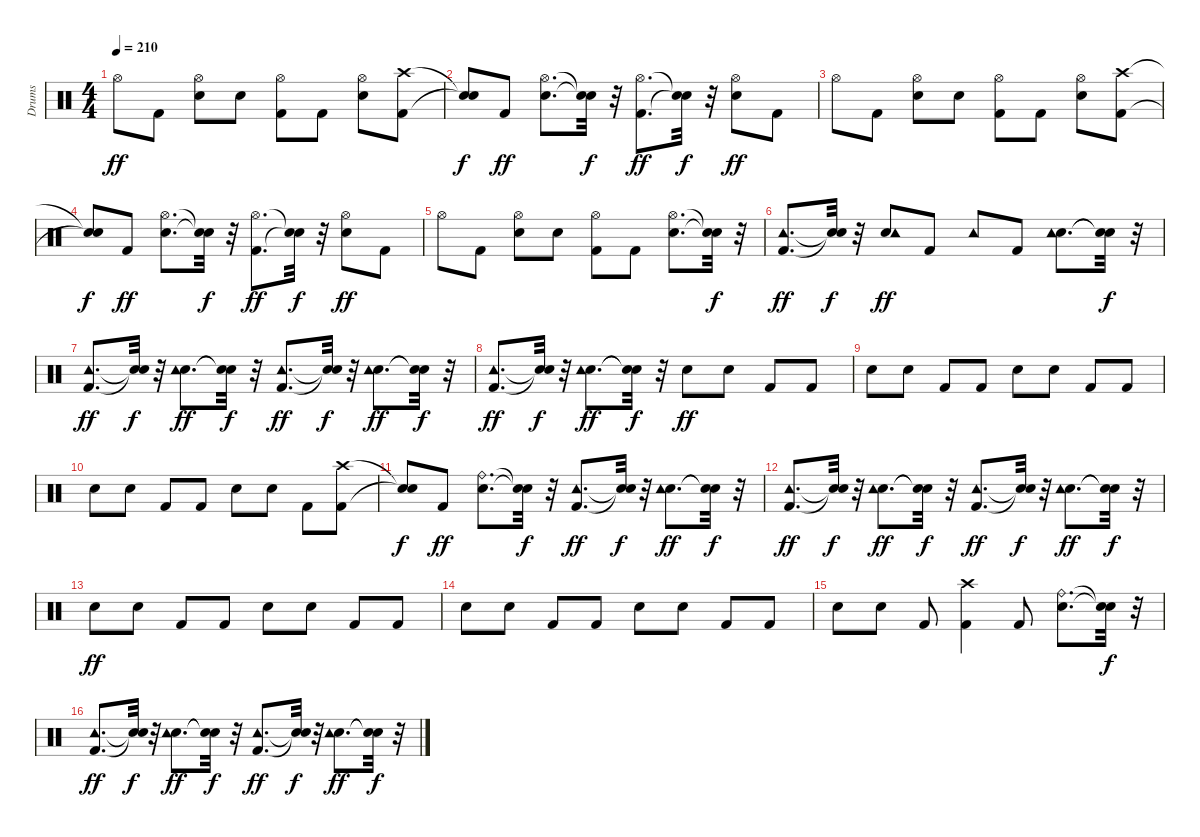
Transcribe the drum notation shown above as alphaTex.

\track ("Drums" "Drums") {instrument percussion}
\staff {score}
\articulation defaults
\ts (4 4)
\tempo 210
\clef neutral
\ks c "Hi-Hat (open)".8{dy ff} "Kick (hit) 2".8
("Snare (hit) 2" "Hi-Hat (open)").8 "Snare (hit) 2".8 ("Kick (hit) 2" "Hi-Hat (open)").8 "Kick (hit) 2".8 ("Snare (hit) 2" "Hi-Hat (open)").8 ("Kick (hit) 2" "Crash high (hit)").8 |
("Snare (hit)"{t} "Snare (hit)"{t}).8{dy f} "Kick (hit) 2".8{dy ff} ("Snare (hit) 2" "Hi-Hat (open)").8{d} ("Snare (hit)"{t} "Snare (hit)"{t}).32{dy f} r.32 ("Kick (hit) 2" "Hi-Hat (open)").8{d dy ff} ("Snare (hit)"{t} "Snare (hit)"{t}).32{dy f} r.32 ("Snare (hit) 2" "Hi-Hat (open)").8{dy ff} "Kick (hit) 2".8 |
"Hi-Hat (open)".8 "Kick (hit) 2".8 ("Snare (hit) 2" "Hi-Hat (open)").8 "Snare (hit) 2".8 ("Kick (hit) 2" "Hi-Hat (open)").8 "Kick (hit) 2".8 ("Snare (hit) 2" "Hi-Hat (open)").8 ("Kick (hit) 2" "Crash high (hit)").8 |
("Snare (hit)"{t} "Snare (hit)"{t}).8{dy f} "Kick (hit) 2".8{dy ff} ("Snare (hit) 2" "Hi-Hat (open)").8{d} ("Snare (hit)"{t} "Snare (hit)"{t}).32{dy f} r.32 ("Kick (hit) 2" "Hi-Hat (open)").8{d dy ff} ("Snare (hit)"{t} "Snare (hit)"{t}).32{dy f} r.32 ("Snare (hit) 2" "Hi-Hat (open)").8{dy ff} "Kick (hit) 2".8 |
"Hi-Hat (open)".8 "Kick (hit) 2".8 ("Snare (hit) 2" "Hi-Hat (open)").8 "Snare (hit) 2".8 ("Kick (hit) 2" "Hi-Hat (open)").8 "Kick (hit) 2".8 ("Snare (hit) 2" "Hi-Hat (open)").8{d} ("Snare (hit)"{t} "Snare (hit)"{t}).32{dy f} r.32 |
("Kick (hit) 2" "Tambourine (hit)").8{d dy ff} ("Snare (hit)"{t} "Snare (hit)"{t}).32{dy f} r.32 ("Snare (hit) 2" "Tambourine (hit)").8{dy ff} "Kick (hit) 2".8 "Tambourine (hit)".8 "Kick (hit) 2".8 ("Snare (hit) 2" "Tambourine (hit)").8{d} ("Snare (hit)"{t} "Snare (hit)"{t}).32{dy f} r.32 |
("Kick (hit) 2" "Tambourine (hit)").8{d dy ff} ("Snare (hit)"{t} "Snare (hit)"{t}).32{dy f} r.32 ("Snare (hit) 2" "Tambourine (hit)").8{d dy ff} ("Snare (hit)"{t} "Snare (hit)"{t}).32{dy f} r.32 ("Kick (hit) 2" "Tambourine (hit)").8{d dy ff} ("Snare (hit)"{t} "Snare (hit)"{t}).32{dy f} r.32 ("Snare (hit) 2" "Tambourine (hit)").8{d dy ff} ("Snare (hit)"{t} "Snare (hit)"{t}).32{dy f} r.32 |
("Kick (hit) 2" "Tambourine (hit)").8{d dy ff} ("Snare (hit)"{t} "Snare (hit)"{t}).32{dy f} r.32 ("Snare (hit) 2" "Tambourine (hit)").8{d dy ff} ("Snare (hit)"{t} "Snare (hit)"{t}).32{dy f} r.32 "Snare (hit) 2".8{dy ff} "Snare (hit) 2".8 "Kick (hit) 2".8 "Kick (hit) 2".8 |
"Snare (hit) 2".8 "Snare (hit) 2".8 "Kick (hit) 2".8 "Kick (hit) 2".8 "Snare (hit) 2".8 "Snare (hit) 2".8 "Kick (hit) 2".8 "Kick (hit) 2".8 |
"Snare (hit) 2".8 "Snare (hit) 2".8 "Kick (hit) 2".8 "Kick (hit) 2".8 "Snare (hit) 2".8 "Snare (hit) 2".8 "Kick (hit) 2".8 ("Kick (hit) 2" "Crash high (hit)").8 |
("Snare (hit)"{t} "Snare (hit)"{t}).8{dy f} "Kick (hit) 2".8{dy ff} ("Snare (hit) 2" "Ride (bell)").8{d} ("Snare (hit)"{t} "Snare (hit)"{t}).32{dy f} r.32 ("Kick (hit) 2" "Tambourine (hit)").8{d dy ff} ("Snare (hit)"{t} "Snare (hit)"{t}).32{dy f} r.32 ("Snare (hit) 2" "Tambourine (hit)").8{d dy ff} ("Snare (hit)"{t} "Snare (hit)"{t}).32{dy f} r.32 |
("Kick (hit) 2" "Tambourine (hit)").8{d dy ff} ("Snare (hit)"{t} "Snare (hit)"{t}).32{dy f} r.32 ("Snare (hit) 2" "Tambourine (hit)").8{d dy ff} ("Snare (hit)"{t} "Snare (hit)"{t}).32{dy f} r.32 ("Kick (hit) 2" "Tambourine (hit)").8{d dy ff} ("Snare (hit)"{t} "Snare (hit)"{t}).32{dy f} r.32 ("Snare (hit) 2" "Tambourine (hit)").8{d dy ff} ("Snare (hit)"{t} "Snare (hit)"{t}).32{dy f} r.32 |
"Snare (hit) 2".8{dy ff} "Snare (hit) 2".8 "Kick (hit) 2".8 "Kick (hit) 2".8 "Snare (hit) 2".8 "Snare (hit) 2".8 "Kick (hit) 2".8 "Kick (hit) 2".8 |
"Snare (hit) 2".8 "Snare (hit) 2".8 "Kick (hit) 2".8 "Kick (hit) 2".8 "Snare (hit) 2".8 "Snare (hit) 2".8 "Kick (hit) 2".8 "Kick (hit) 2".8 |
"Snare (hit) 2".8 "Snare (hit) 2".8 "Kick (hit) 2".8 ("Kick (hit) 2" "Crash high (hit)").4 "Kick (hit) 2".8 ("Snare (hit) 2" "Ride (bell)").8{d} ("Snare (hit)"{t} "Snare (hit)"{t}).32{dy f} r.32 |
("Kick (hit) 2" "Tambourine (hit)").8{d dy ff} ("Snare (hit)"{t} "Snare (hit)"{t}).32{dy f} r.32 ("Snare (hit) 2" "Tambourine (hit)").8{d dy ff} ("Snare (hit)"{t} "Snare (hit)"{t}).32{dy f} r.32 ("Kick (hit) 2" "Tambourine (hit)").8{d dy ff} ("Snare (hit)"{t} "Snare (hit)"{t}).32{dy f} r.32 ("Snare (hit) 2" "Tambourine (hit)").8{d dy ff} ("Snare (hit)"{t} "Snare (hit)"{t}).32{dy f} r.32
